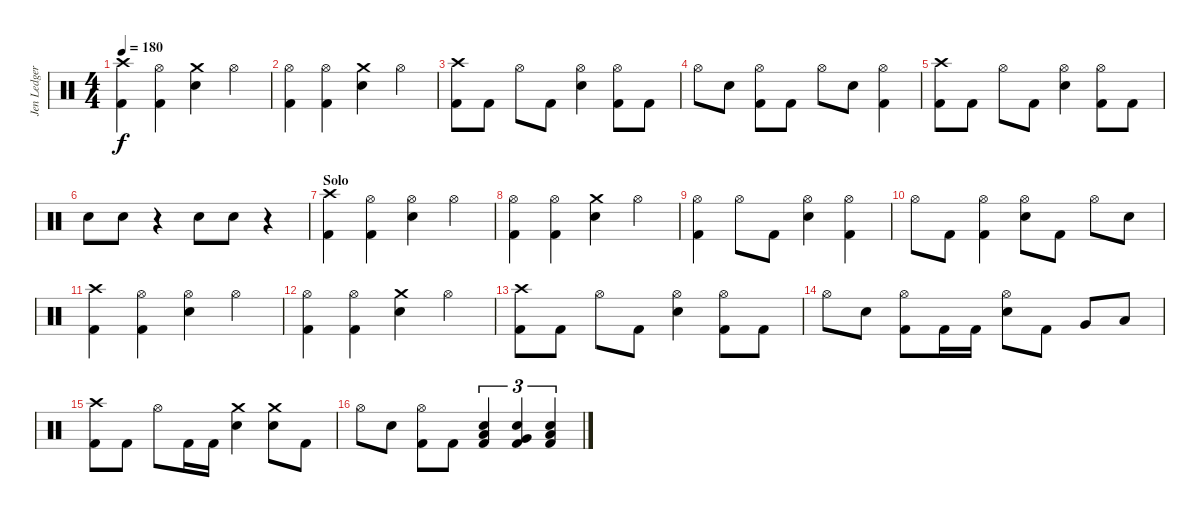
\track ("Jen Ledger" "Jen Ledger") {instrument percussion}
\staff {score}
\articulation defaults
\ts (4 4)
\tempo 180
\clef neutral
\ks c
("Crash high (hit)" "Kick (hit) 2").4{dy f} ("Hi-Hat (open)" "Kick (hit) 2").4 ("Crash medium (hit)" "Electric Snare (hit)").4 "Hi-Hat (open)".4 |
("Hi-Hat (open)" "Kick (hit) 2").4 ("Hi-Hat (open)" "Kick (hit) 2").4 ("Crash medium (hit)" "Electric Snare (hit)").4 "Hi-Hat (open)".4 |
("Crash high (hit)" "Kick (hit) 2").8 "Kick (hit) 2".8 "Hi-Hat (open)".8 "Kick (hit) 2".8 ("Hi-Hat (open)" "Electric Snare (hit)").4 ("Hi-Hat (open)" "Kick (hit) 2").8 "Kick (hit) 2".8 |
"Hi-Hat (open)".8 "Electric Snare (hit)".8 ("Hi-Hat (open)" "Kick (hit) 2").8 "Kick (hit) 2".8 "Hi-Hat (open)".8 "Electric Snare (hit)".8 ("Hi-Hat (open)" "Kick (hit) 2").4 |
("Crash high (hit)" "Kick (hit) 2").8 "Kick (hit) 2".8 "Hi-Hat (open)".8 "Kick (hit) 2".8 ("Hi-Hat (open)" "Electric Snare (hit)").4 ("Hi-Hat (open)" "Kick (hit) 2").8 "Kick (hit) 2".8 |
"Electric Snare (hit)".8 "Electric Snare (hit)".8 r.4 "Electric Snare (hit)".8 "Electric Snare (hit)".8 r.4 |
\section ("" "Solo")
("Crash high (hit)" "Kick (hit) 2").4 ("Hi-Hat (open)" "Kick (hit) 2").4 ("Hi-Hat (open)" "Electric Snare (hit)").4 "Hi-Hat (open)".4 |
("Hi-Hat (open)" "Kick (hit) 2").4 ("Hi-Hat (open)" "Kick (hit) 2").4 ("Crash medium (hit)" "Electric Snare (hit)").4 "Hi-Hat (open)".4 |
("Hi-Hat (open)" "Kick (hit) 2").4 "Hi-Hat (open)".8 "Kick (hit) 2".8 ("Hi-Hat (open)" "Electric Snare (hit)").4 ("Hi-Hat (open)" "Kick (hit) 2").4 |
"Hi-Hat (open)".8 "Kick (hit) 2".8 ("Hi-Hat (open)" "Kick (hit) 2").4 ("Hi-Hat (open)" "Electric Snare (hit)").8 "Kick (hit) 2".8 "Hi-Hat (open)".8 "Electric Snare (hit)".8 |
("Crash high (hit)" "Kick (hit) 2").4 ("Hi-Hat (open)" "Kick (hit) 2").4 ("Hi-Hat (open)" "Electric Snare (hit)").4 "Hi-Hat (open)".4 |
("Hi-Hat (open)" "Kick (hit) 2").4 ("Hi-Hat (open)" "Kick (hit) 2").4 ("Crash medium (hit)" "Electric Snare (hit)").4 "Hi-Hat (open)".4 |
("Crash high (hit)" "Kick (hit) 2").8 "Kick (hit) 2".8 "Hi-Hat (open)".8 "Kick (hit) 2".8 ("Hi-Hat (open)" "Electric Snare (hit)").4 ("Hi-Hat (open)" "Kick (hit) 2").8 "Kick (hit) 2".8 |
"Hi-Hat (open)".8 "Electric Snare (hit)".8 ("Hi-Hat (open)" "Kick (hit) 2").8 "Kick (hit) 2".16 "Kick (hit) 2".16 ("Hi-Hat (open)" "Electric Snare (hit)").8 "Kick (hit) 2".8 "Very Low Tom (hit)".8 "Low Floor Tom (hit)".8 |
("Crash high (hit)" "Kick (hit) 2").8 "Kick (hit) 2".8 "Hi-Hat (open)".8 "Kick (hit) 2".16 "Kick (hit) 2".16 ("Crash medium (hit)" "Electric Snare (hit)").4 ("Crash medium (hit)" "Electric Snare (hit)").8 "Kick (hit) 2".8 |
"Hi-Hat (open)".8 "Electric Snare (hit)".8 ("Hi-Hat (open)" "Kick (hit) 2").8 "Kick (hit) 2".8 ("Low Tom (hit)" "Electric Snare (hit)" "Kick (hit) 2").4{tu (3 2)} ("Very Low Tom (hit)" "Electric Snare (hit)" "Kick (hit) 2").4{tu (3 2)} ("Low Floor Tom (hit)" "Electric Snare (hit)" "Kick (hit) 2").4{tu (3 2)}
